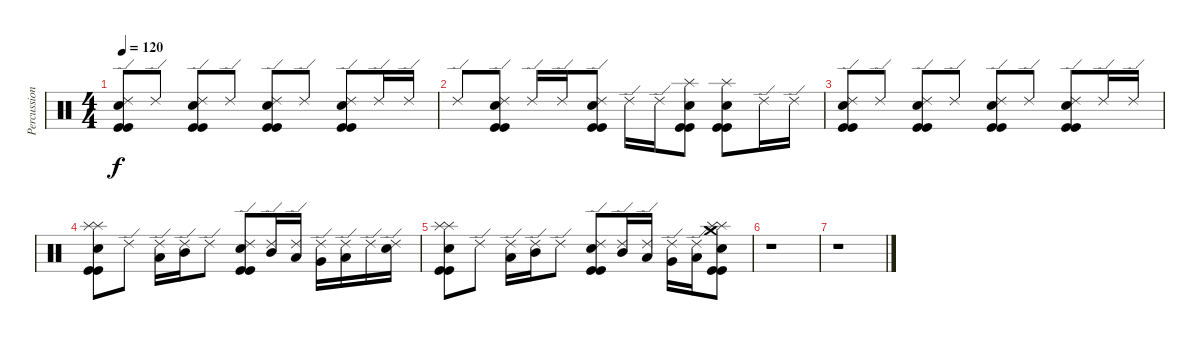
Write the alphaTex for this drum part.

\track ("Percussions" "Percussion") {instrument percussion}
\staff {score}
\articulation defaults
\ts (4 4)
\tempo 120
\clef neutral
\ks c
("Ride (edge) 2" "Snare (hit) 2" "Kick (hit)" "Kick (hit)").8{dy f} "Ride (edge) 2".8 ("Ride (edge) 2" "Snare (hit) 2" "Kick (hit)" "Kick (hit)").8 "Ride (edge) 2".8 ("Ride (edge) 2" "Snare (hit) 2" "Kick (hit)" "Kick (hit)").8 "Ride (edge) 2".8 ("Ride (edge) 2" "Snare (hit) 2" "Kick (hit)" "Kick (hit)").8 "Ride (edge) 2".16 "Ride (edge) 2".16 |
"Ride (edge) 2".8 ("Ride (edge) 2" "Snare (hit) 2" "Kick (hit)" "Kick (hit)").8 "Ride (edge) 2".16 "Ride (edge) 2".16 ("Ride (edge) 2" "Snare (hit) 2" "Kick (hit)" "Kick (hit)").8 "Ride (edge) 2".16 "Ride (edge) 2".16 ("Splash (hit)" "Snare (hit) 2" "Kick (hit)" "Kick (hit)").8 ("Splash (hit)" "Snare (hit) 2" "Kick (hit)" "Kick (hit)").8 "Ride (edge) 2".16 "Ride (edge) 2".16 |
("Ride (edge) 2" "Snare (hit) 2" "Kick (hit)" "Kick (hit)").8 "Ride (edge) 2".8 ("Ride (edge) 2" "Snare (hit) 2" "Kick (hit)" "Kick (hit)").8 "Ride (edge) 2".8 ("Ride (edge) 2" "Snare (hit) 2" "Kick (hit)" "Kick (hit)").8 "Ride (edge) 2".8 ("Ride (edge) 2" "Snare (hit) 2" "Kick (hit)" "Kick (hit)").8 "Ride (edge) 2".16 "Ride (edge) 2".16 |
("Splash (hit)" "Splash (hit)" "Snare (hit) 2" "Kick (hit)" "Kick (hit)").8 "Ride (edge) 2".8 ("Ride (edge) 2" "Low Tom (hit)").16 ("Ride (edge) 2" "Mid Tom (hit)").16 "Ride (edge) 2".8 ("Ride (edge) 2" "Snare (hit) 2" "Kick (hit)" "Kick (hit)").8 ("Ride (edge) 2" "Mid Tom (hit)").16 ("Ride (edge) 2" "Low Tom (hit)").16 ("Ride (edge) 2" "Very Low Tom (hit)").16 ("Ride (edge) 2" "Low Floor Tom (hit)").16 "Ride (edge) 2".16 ("Ride (edge) 2" "Snare (hit) 2").16 |
("Splash (hit)" "Splash (hit)" "Snare (hit) 2" "Kick (hit)" "Kick (hit)").8 "Ride (edge) 2".8 ("Ride (edge) 2" "Low Tom (hit)").16 ("Ride (edge) 2" "Mid Tom (hit)").16 "Ride (edge) 2".8 ("Ride (edge) 2" "Snare (hit) 2" "Kick (hit)" "Kick (hit)").8 ("Ride (edge) 2" "Mid Tom (hit)").16 ("Ride (edge) 2" "Low Tom (hit)").16 ("Ride (edge) 2" "Very Low Tom (hit)").16 ("Ride (edge) 2" "Low Floor Tom (hit)").16 ("Crash medium (hit)" "Splash (hit)" "Splash (hit)" "Snare (hit) 2" "Kick (hit)" "Kick (hit)").8 |
r.1 |
r.1
